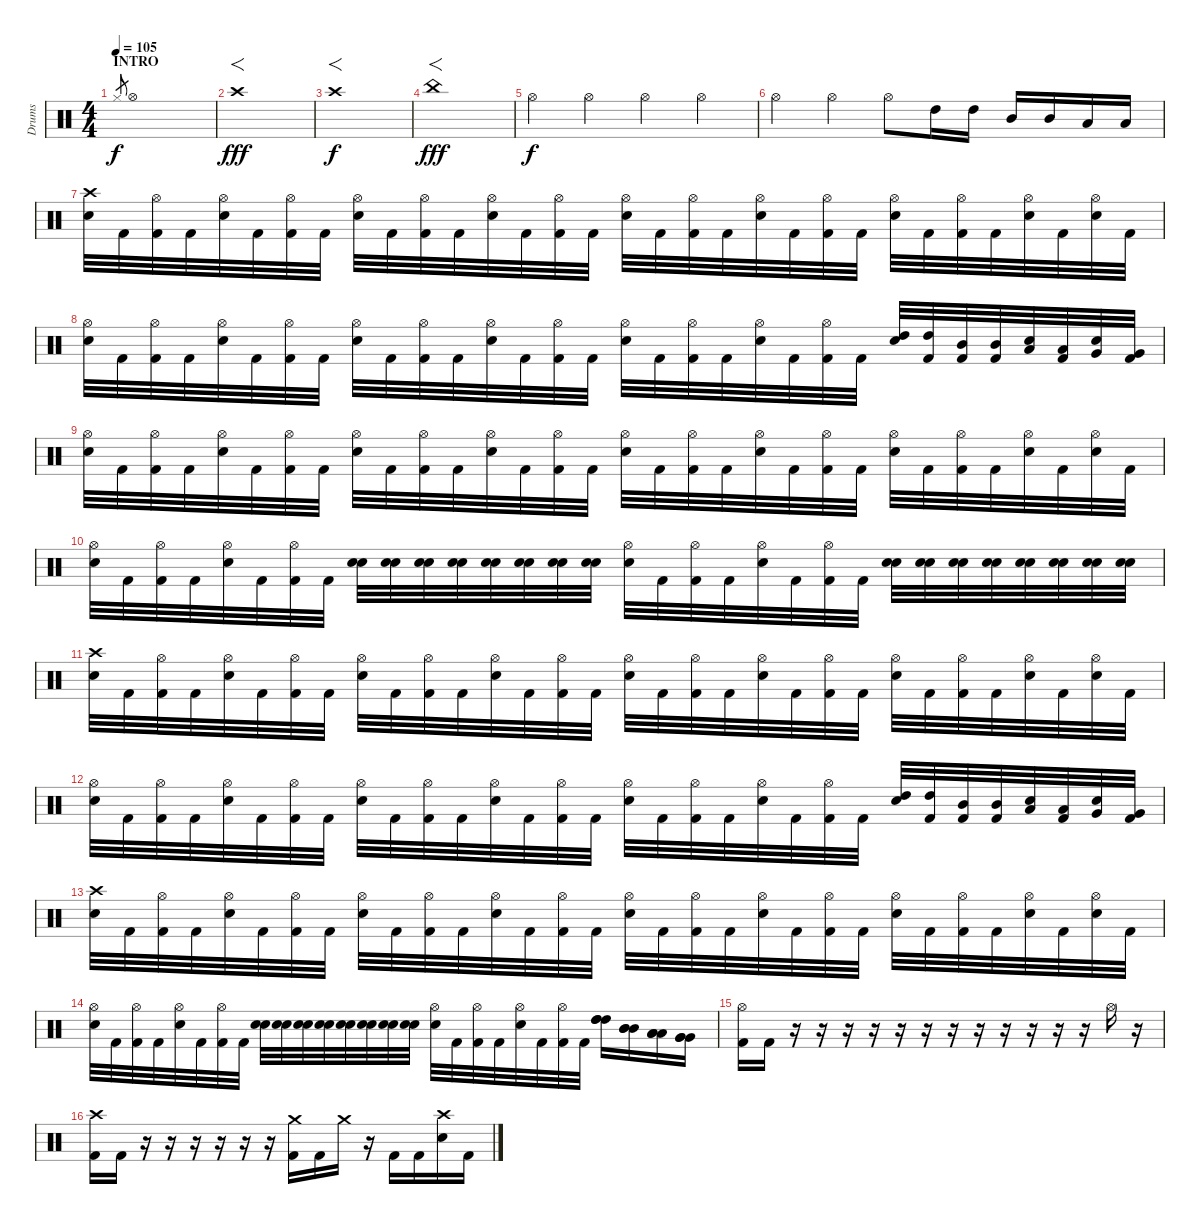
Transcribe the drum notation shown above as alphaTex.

\track ("Drums" "Drums") {instrument percussion}
\staff {score}
\articulation defaults
\ts (4 4)
\section ("" "INTRO")
\tempo 105
\clef neutral
\ks c "Hi-Hat (closed)".8{gr dy f} "Hi-Hat (open)".1
|
"Crash high (hit)".1{f dy fff} |
"Crash high (hit)".1{f dy f} |
"China (hit)".1{f dy fff} |
"Hi-Hat (open)".4{dy f} "Hi-Hat (open)".4 "Hi-Hat (open)".4 "Hi-Hat (open)".4 |
"Hi-Hat (open)".4 "Hi-Hat (open)".4 "Hi-Hat (open)".8 "High Tom (hit)".16 "High Tom (hit)".16 "Mid Tom (hit)".16 "Mid Tom (hit)".16 "Low Tom (hit)".16 "Low Tom (hit)".16 |
("Crash high (hit)" "Electric Snare (hit)").32 "Kick (hit) 2".32 ("Hi-Hat (open)" "Kick (hit) 2").32 "Kick (hit) 2".32 ("Hi-Hat (open)" "Electric Snare (hit)").32 "Kick (hit) 2".32 ("Hi-Hat (open)" "Kick (hit) 2").32 "Kick (hit) 2".32 ("Hi-Hat (open)" "Electric Snare (hit)").32 "Kick (hit) 2".32 ("Hi-Hat (open)" "Kick (hit) 2").32 "Kick (hit) 2".32 ("Hi-Hat (open)" "Electric Snare (hit)").32 "Kick (hit) 2".32 ("Hi-Hat (open)" "Kick (hit) 2").32 "Kick (hit) 2".32 ("Hi-Hat (open)" "Electric Snare (hit)").32 "Kick (hit) 2".32 ("Hi-Hat (open)" "Kick (hit) 2").32 "Kick (hit) 2".32 ("Hi-Hat (open)" "Electric Snare (hit)").32 "Kick (hit) 2".32 ("Hi-Hat (open)" "Kick (hit) 2").32 "Kick (hit) 2".32 ("Hi-Hat (open)" "Electric Snare (hit)").32 "Kick (hit) 2".32 ("Hi-Hat (open)" "Kick (hit) 2").32 "Kick (hit) 2".32 ("Hi-Hat (open)" "Electric Snare (hit)").32 "Kick (hit) 2".32 ("Hi-Hat (open)" "Electric Snare (hit)").32 "Kick (hit) 2".32 |
("Hi-Hat (open)" "Electric Snare (hit)").32 "Kick (hit) 2".32 ("Hi-Hat (open)" "Kick (hit) 2").32 "Kick (hit) 2".32 ("Hi-Hat (open)" "Electric Snare (hit)").32 "Kick (hit) 2".32 ("Hi-Hat (open)" "Kick (hit) 2").32 "Kick (hit) 2".32 ("Hi-Hat (open)" "Electric Snare (hit)").32 "Kick (hit) 2".32 ("Hi-Hat (open)" "Kick (hit) 2").32 "Kick (hit) 2".32 ("Hi-Hat (open)" "Electric Snare (hit)").32 "Kick (hit) 2".32 ("Hi-Hat (open)" "Kick (hit) 2").32 "Kick (hit) 2".32 ("Hi-Hat (open)" "Electric Snare (hit)").32 "Kick (hit) 2".32 ("Hi-Hat (open)" "Kick (hit) 2").32 "Kick (hit) 2".32 ("Hi-Hat (open)" "Electric Snare (hit)").32 "Kick (hit) 2".32 ("Hi-Hat (open)" "Kick (hit) 2").32 "Kick (hit) 2".32 ("High Tom (hit)" "Electric Snare (hit)").32 ("High Tom (hit)" "Kick (hit) 2").32 ("Mid Tom (hit)" "Kick (hit) 2").32 ("Mid Tom (hit)" "Kick (hit) 2").32 ("Low Tom (hit)" "Electric Snare (hit)").32 ("Low Tom (hit)" "Kick (hit) 2").32 ("Very Low Tom (hit)" "Electric Snare (hit)").32 ("Very Low Tom (hit)" "Kick (hit) 2").32 |
("Hi-Hat (open)" "Electric Snare (hit)").32 "Kick (hit) 2".32 ("Hi-Hat (open)" "Kick (hit) 2").32 "Kick (hit) 2".32 ("Hi-Hat (open)" "Electric Snare (hit)").32 "Kick (hit) 2".32 ("Hi-Hat (open)" "Kick (hit) 2").32 "Kick (hit) 2".32 ("Hi-Hat (open)" "Electric Snare (hit)").32 "Kick (hit) 2".32 ("Hi-Hat (open)" "Kick (hit) 2").32 "Kick (hit) 2".32 ("Hi-Hat (open)" "Electric Snare (hit)").32 "Kick (hit) 2".32 ("Hi-Hat (open)" "Kick (hit) 2").32 "Kick (hit) 2".32 ("Hi-Hat (open)" "Electric Snare (hit)").32 "Kick (hit) 2".32 ("Hi-Hat (open)" "Kick (hit) 2").32 "Kick (hit) 2".32 ("Hi-Hat (open)" "Electric Snare (hit)").32 "Kick (hit) 2".32 ("Hi-Hat (open)" "Kick (hit) 2").32 "Kick (hit) 2".32 ("Hi-Hat (open)" "Electric Snare (hit)").32 "Kick (hit) 2".32 ("Hi-Hat (open)" "Kick (hit) 2").32 "Kick (hit) 2".32 ("Hi-Hat (open)" "Electric Snare (hit)").32 "Kick (hit) 2".32 ("Hi-Hat (open)" "Electric Snare (hit)").32 "Kick (hit) 2".32 |
("Hi-Hat (open)" "Electric Snare (hit)").32 "Kick (hit) 2".32 ("Hi-Hat (open)" "Kick (hit) 2").32 "Kick (hit) 2".32 ("Hi-Hat (open)" "Electric Snare (hit)").32 "Kick (hit) 2".32 ("Hi-Hat (open)" "Kick (hit) 2").32 "Kick (hit) 2".32 ("Electric Snare (hit)" "Electric Snare (hit)").32 ("Electric Snare (hit)" "Electric Snare (hit)").32 ("Electric Snare (hit)" "Electric Snare (hit)").32 ("Electric Snare (hit)" "Electric Snare (hit)").32 ("Electric Snare (hit)" "Electric Snare (hit)").32 ("Electric Snare (hit)" "Electric Snare (hit)").32 ("Electric Snare (hit)" "Electric Snare (hit)").32 ("Electric Snare (hit)" "Electric Snare (hit)").32 ("Hi-Hat (open)" "Electric Snare (hit)").32 "Kick (hit) 2".32 ("Hi-Hat (open)" "Kick (hit) 2").32 "Kick (hit) 2".32 ("Hi-Hat (open)" "Electric Snare (hit)").32 "Kick (hit) 2".32 ("Hi-Hat (open)" "Kick (hit) 2").32 "Kick (hit) 2".32 ("Electric Snare (hit)" "Electric Snare (hit)").32 ("Electric Snare (hit)" "Electric Snare (hit)").32 ("Electric Snare (hit)" "Electric Snare (hit)").32 ("Electric Snare (hit)" "Electric Snare (hit)").32 ("Electric Snare (hit)" "Electric Snare (hit)").32 ("Electric Snare (hit)" "Electric Snare (hit)").32 ("Electric Snare (hit)" "Electric Snare (hit)").32 ("Electric Snare (hit)" "Electric Snare (hit)").32 |
("Crash high (hit)" "Electric Snare (hit)").32 "Kick (hit) 2".32 ("Hi-Hat (open)" "Kick (hit) 2").32 "Kick (hit) 2".32 ("Hi-Hat (open)" "Electric Snare (hit)").32 "Kick (hit) 2".32 ("Hi-Hat (open)" "Kick (hit) 2").32 "Kick (hit) 2".32 ("Hi-Hat (open)" "Electric Snare (hit)").32 "Kick (hit) 2".32 ("Hi-Hat (open)" "Kick (hit) 2").32 "Kick (hit) 2".32 ("Hi-Hat (open)" "Electric Snare (hit)").32 "Kick (hit) 2".32 ("Hi-Hat (open)" "Kick (hit) 2").32 "Kick (hit) 2".32 ("Hi-Hat (open)" "Electric Snare (hit)").32 "Kick (hit) 2".32 ("Hi-Hat (open)" "Kick (hit) 2").32 "Kick (hit) 2".32 ("Hi-Hat (open)" "Electric Snare (hit)").32 "Kick (hit) 2".32 ("Hi-Hat (open)" "Kick (hit) 2").32 "Kick (hit) 2".32 ("Hi-Hat (open)" "Electric Snare (hit)").32 "Kick (hit) 2".32 ("Hi-Hat (open)" "Kick (hit) 2").32 "Kick (hit) 2".32 ("Hi-Hat (open)" "Electric Snare (hit)").32 "Kick (hit) 2".32 ("Hi-Hat (open)" "Electric Snare (hit)").32 "Kick (hit) 2".32 |
("Hi-Hat (open)" "Electric Snare (hit)").32 "Kick (hit) 2".32 ("Hi-Hat (open)" "Kick (hit) 2").32 "Kick (hit) 2".32 ("Hi-Hat (open)" "Electric Snare (hit)").32 "Kick (hit) 2".32 ("Hi-Hat (open)" "Kick (hit) 2").32 "Kick (hit) 2".32 ("Hi-Hat (open)" "Electric Snare (hit)").32 "Kick (hit) 2".32 ("Hi-Hat (open)" "Kick (hit) 2").32 "Kick (hit) 2".32 ("Hi-Hat (open)" "Electric Snare (hit)").32 "Kick (hit) 2".32 ("Hi-Hat (open)" "Kick (hit) 2").32 "Kick (hit) 2".32 ("Hi-Hat (open)" "Electric Snare (hit)").32 "Kick (hit) 2".32 ("Hi-Hat (open)" "Kick (hit) 2").32 "Kick (hit) 2".32 ("Hi-Hat (open)" "Electric Snare (hit)").32 "Kick (hit) 2".32 ("Hi-Hat (open)" "Kick (hit) 2").32 "Kick (hit) 2".32 ("High Tom (hit)" "Electric Snare (hit)").32 ("High Tom (hit)" "Kick (hit) 2").32 ("Mid Tom (hit)" "Kick (hit) 2").32 ("Mid Tom (hit)" "Kick (hit) 2").32 ("Low Tom (hit)" "Electric Snare (hit)").32 ("Low Tom (hit)" "Kick (hit) 2").32 ("Very Low Tom (hit)" "Electric Snare (hit)").32 ("Very Low Tom (hit)" "Kick (hit) 2").32 |
("Crash high (hit)" "Electric Snare (hit)").32 "Kick (hit) 2".32 ("Hi-Hat (open)" "Kick (hit) 2").32 "Kick (hit) 2".32 ("Hi-Hat (open)" "Electric Snare (hit)").32 "Kick (hit) 2".32 ("Hi-Hat (open)" "Kick (hit) 2").32 "Kick (hit) 2".32 ("Hi-Hat (open)" "Electric Snare (hit)").32 "Kick (hit) 2".32 ("Hi-Hat (open)" "Kick (hit) 2").32 "Kick (hit) 2".32 ("Hi-Hat (open)" "Electric Snare (hit)").32 "Kick (hit) 2".32 ("Hi-Hat (open)" "Kick (hit) 2").32 "Kick (hit) 2".32 ("Hi-Hat (open)" "Electric Snare (hit)").32 "Kick (hit) 2".32 ("Hi-Hat (open)" "Kick (hit) 2").32 "Kick (hit) 2".32 ("Hi-Hat (open)" "Electric Snare (hit)").32 "Kick (hit) 2".32 ("Hi-Hat (open)" "Kick (hit) 2").32 "Kick (hit) 2".32 ("Hi-Hat (open)" "Electric Snare (hit)").32 "Kick (hit) 2".32 ("Hi-Hat (open)" "Kick (hit) 2").32 "Kick (hit) 2".32 ("Hi-Hat (open)" "Electric Snare (hit)").32 "Kick (hit) 2".32 ("Hi-Hat (open)" "Electric Snare (hit)").32 "Kick (hit) 2".32 |
("Hi-Hat (open)" "Electric Snare (hit)").32 "Kick (hit) 2".32 ("Hi-Hat (open)" "Kick (hit) 2").32 "Kick (hit) 2".32 ("Hi-Hat (open)" "Electric Snare (hit)").32 "Kick (hit) 2".32 ("Hi-Hat (open)" "Kick (hit) 2").32 "Kick (hit) 2".32 ("Electric Snare (hit)" "Electric Snare (hit)").32 ("Electric Snare (hit)" "Electric Snare (hit)").32 ("Electric Snare (hit)" "Electric Snare (hit)").32 ("Electric Snare (hit)" "Electric Snare (hit)").32 ("Electric Snare (hit)" "Electric Snare (hit)").32 ("Electric Snare (hit)" "Electric Snare (hit)").32 ("Electric Snare (hit)" "Electric Snare (hit)").32 ("Electric Snare (hit)" "Electric Snare (hit)").32 ("Hi-Hat (open)" "Electric Snare (hit)").32 "Kick (hit) 2".32 ("Hi-Hat (open)" "Kick (hit) 2").32 "Kick (hit) 2".32 ("Hi-Hat (open)" "Electric Snare (hit)").32 "Kick (hit) 2".32 ("Hi-Hat (open)" "Kick (hit) 2").32 "Kick (hit) 2".32 ("High Tom (hit)" "High Tom (hit)" "High Tom (hit)").16 ("Mid Tom (hit)" "Mid Tom (hit)" "Mid Tom (hit)").16 ("Low Tom (hit)" "Low Tom (hit)" "Low Tom (hit)").16 ("Very Low Tom (hit)" "Very Low Tom (hit)" "Very Low Tom (hit)").16 |
("Hi-Hat (open)" "Kick (hit) 2").16 "Kick (hit) 2".16 r.16 r.16 r.16 r.16 r.16 r.16 r.16 r.16 r.16 r.16 r.16 r.16 "Hi-Hat (open)".16 r.16 |
("Crash high (hit)" "Kick (hit) 2").16 "Kick (hit) 2".16 r.16 r.16 r.16 r.16 r.16 r.16 ("Crash medium (hit)" "Kick (hit) 2").16 "Kick (hit) 2".16 "Crash medium (hit)".16 r.16 "Kick (hit) 2".16 "Kick (hit) 2".16 ("Crash high (hit)" "Electric Snare (hit)").16 "Kick (hit) 2".16
